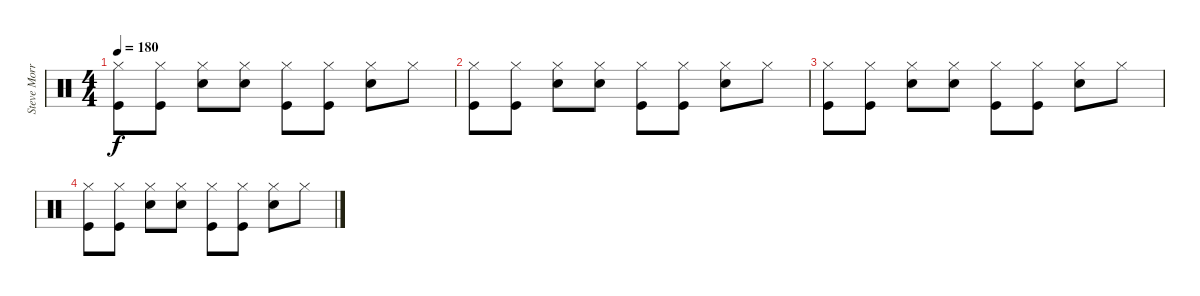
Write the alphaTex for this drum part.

\track ("Steve Morris" "Steve Morr") {instrument percussion}
\staff {score}
\articulation defaults
\ts (4 4)
\tempo 180
\clef neutral
\ks c
("Hi-Hat (closed)" "Kick (hit)").8{dy f} ("Hi-Hat (closed)" "Kick (hit)").8 ("Hi-Hat (closed)" "Electric Snare (hit)").8 ("Hi-Hat (closed)" "Electric Snare (hit)").8 ("Hi-Hat (closed)" "Kick (hit)").8 ("Hi-Hat (closed)" "Kick (hit)").8 ("Hi-Hat (closed)" "Electric Snare (hit)").8 "Hi-Hat (closed)".8 |
("Hi-Hat (closed)" "Kick (hit)").8 ("Hi-Hat (closed)" "Kick (hit)").8 ("Hi-Hat (closed)" "Electric Snare (hit)").8 ("Hi-Hat (closed)" "Electric Snare (hit)").8 ("Hi-Hat (closed)" "Kick (hit)").8 ("Hi-Hat (closed)" "Kick (hit)").8 ("Hi-Hat (closed)" "Electric Snare (hit)").8 "Hi-Hat (closed)".8 |
("Hi-Hat (closed)" "Kick (hit)").8 ("Hi-Hat (closed)" "Kick (hit)").8 ("Hi-Hat (closed)" "Electric Snare (hit)").8 ("Hi-Hat (closed)" "Electric Snare (hit)").8 ("Hi-Hat (closed)" "Kick (hit)").8 ("Hi-Hat (closed)" "Kick (hit)").8 ("Hi-Hat (closed)" "Electric Snare (hit)").8 "Hi-Hat (closed)".8 |
("Hi-Hat (closed)" "Kick (hit)").8 ("Hi-Hat (closed)" "Kick (hit)").8 ("Hi-Hat (closed)" "Electric Snare (hit)").8 ("Hi-Hat (closed)" "Electric Snare (hit)").8 ("Hi-Hat (closed)" "Kick (hit)").8 ("Hi-Hat (closed)" "Kick (hit)").8 ("Hi-Hat (closed)" "Electric Snare (hit)").8 "Hi-Hat (closed)".8
